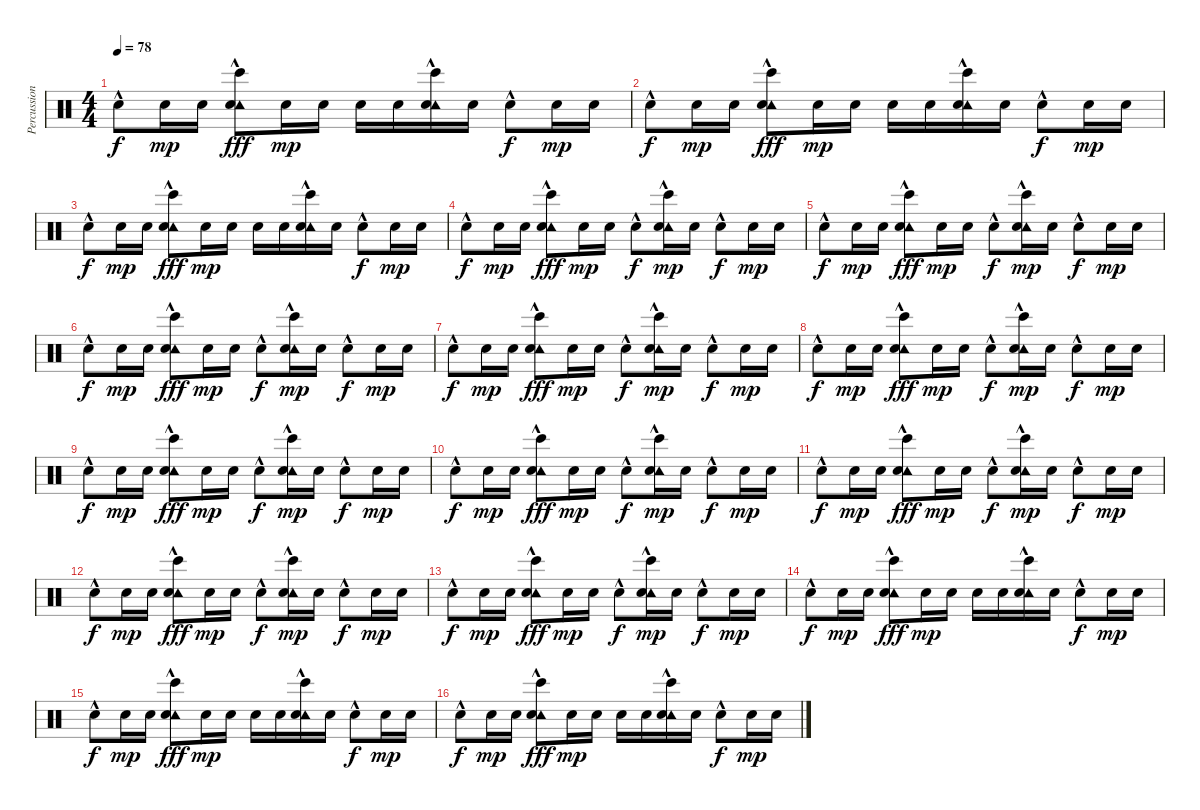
\track ("Percussion" "Percussion") {instrument percussion}
\staff {score}
\articulation defaults
\ts (4 4)
\tempo 78
\clef neutral
\ks c "Snare (hit) 2"{hac}.8{dy f} "Snare (hit) 2".16{dy mp} "Snare (hit) 2".16
("Bongo High (hit)"{hac} "Tambourine (hit)"{hac} "Snare (hit) 2"{hac}).8{dy fff} "Snare (hit) 2".16{dy mp} "Snare (hit) 2".16 "Snare (hit) 2".16 "Snare (hit) 2".16 ("Bongo High (hit)"{hac} "Tambourine (hit)"{hac} "Snare (hit) 2").16 "Snare (hit) 2".16 "Snare (hit) 2"{hac}.8{dy f} "Snare (hit) 2".16{dy mp} "Snare (hit) 2".16 |
"Snare (hit) 2"{hac}.8{dy f} "Snare (hit) 2".16{dy mp} "Snare (hit) 2".16 ("Bongo High (hit)"{hac} "Tambourine (hit)"{hac} "Snare (hit) 2"{hac}).8{dy fff} "Snare (hit) 2".16{dy mp} "Snare (hit) 2".16 "Snare (hit) 2".16 "Snare (hit) 2".16 ("Bongo High (hit)"{hac} "Tambourine (hit)"{hac} "Snare (hit) 2").16 "Snare (hit) 2".16 "Snare (hit) 2"{hac}.8{dy f} "Snare (hit) 2".16{dy mp} "Snare (hit) 2".16 |
"Snare (hit) 2"{hac}.8{dy f} "Snare (hit) 2".16{dy mp} "Snare (hit) 2".16 ("Bongo High (hit)"{hac} "Tambourine (hit)"{hac} "Snare (hit) 2"{hac}).8{dy fff} "Snare (hit) 2".16{dy mp} "Snare (hit) 2".16 "Snare (hit) 2".16 "Snare (hit) 2".16 ("Bongo High (hit)"{hac} "Tambourine (hit)"{hac} "Snare (hit) 2").16 "Snare (hit) 2".16 "Snare (hit) 2"{hac}.8{dy f} "Snare (hit) 2".16{dy mp} "Snare (hit) 2".16 |
"Snare (hit) 2"{hac}.8{dy f} "Snare (hit) 2".16{dy mp} "Snare (hit) 2".16 ("Bongo High (hit)"{hac} "Tambourine (hit)"{hac} "Snare (hit) 2"{hac}).8{dy fff} "Snare (hit) 2".16{dy mp} "Snare (hit) 2".16 "Snare (hit) 2"{hac}.8{dy f} ("Bongo High (hit)"{hac} "Tambourine (hit)"{hac} "Snare (hit) 2").16{dy mp} "Snare (hit) 2".16 "Snare (hit) 2"{hac}.8{dy f} "Snare (hit) 2".16{dy mp} "Snare (hit) 2".16 |
"Snare (hit) 2"{hac}.8{dy f} "Snare (hit) 2".16{dy mp} "Snare (hit) 2".16 ("Bongo High (hit)"{hac} "Tambourine (hit)"{hac} "Snare (hit) 2"{hac}).8{dy fff} "Snare (hit) 2".16{dy mp} "Snare (hit) 2".16 "Snare (hit) 2"{hac}.8{dy f} ("Bongo High (hit)"{hac} "Tambourine (hit)"{hac} "Snare (hit) 2").16{dy mp} "Snare (hit) 2".16 "Snare (hit) 2"{hac}.8{dy f} "Snare (hit) 2".16{dy mp} "Snare (hit) 2".16 |
"Snare (hit) 2"{hac}.8{dy f} "Snare (hit) 2".16{dy mp} "Snare (hit) 2".16 ("Bongo High (hit)"{hac} "Tambourine (hit)"{hac} "Snare (hit) 2"{hac}).8{dy fff} "Snare (hit) 2".16{dy mp} "Snare (hit) 2".16 "Snare (hit) 2"{hac}.8{dy f} ("Bongo High (hit)"{hac} "Tambourine (hit)"{hac} "Snare (hit) 2").16{dy mp} "Snare (hit) 2".16 "Snare (hit) 2"{hac}.8{dy f} "Snare (hit) 2".16{dy mp} "Snare (hit) 2".16 |
"Snare (hit) 2"{hac}.8{dy f} "Snare (hit) 2".16{dy mp} "Snare (hit) 2".16 ("Bongo High (hit)"{hac} "Tambourine (hit)"{hac} "Snare (hit) 2"{hac}).8{dy fff} "Snare (hit) 2".16{dy mp} "Snare (hit) 2".16 "Snare (hit) 2"{hac}.8{dy f} ("Bongo High (hit)"{hac} "Tambourine (hit)"{hac} "Snare (hit) 2").16{dy mp} "Snare (hit) 2".16 "Snare (hit) 2"{hac}.8{dy f} "Snare (hit) 2".16{dy mp} "Snare (hit) 2".16 |
"Snare (hit) 2"{hac}.8{dy f} "Snare (hit) 2".16{dy mp} "Snare (hit) 2".16 ("Bongo High (hit)"{hac} "Tambourine (hit)"{hac} "Snare (hit) 2"{hac}).8{dy fff} "Snare (hit) 2".16{dy mp} "Snare (hit) 2".16 "Snare (hit) 2"{hac}.8{dy f} ("Bongo High (hit)"{hac} "Tambourine (hit)"{hac} "Snare (hit) 2").16{dy mp} "Snare (hit) 2".16 "Snare (hit) 2"{hac}.8{dy f} "Snare (hit) 2".16{dy mp} "Snare (hit) 2".16 |
"Snare (hit) 2"{hac}.8{dy f} "Snare (hit) 2".16{dy mp} "Snare (hit) 2".16 ("Bongo High (hit)"{hac} "Tambourine (hit)"{hac} "Snare (hit) 2"{hac}).8{dy fff} "Snare (hit) 2".16{dy mp} "Snare (hit) 2".16 "Snare (hit) 2"{hac}.8{dy f} ("Bongo High (hit)"{hac} "Tambourine (hit)"{hac} "Snare (hit) 2").16{dy mp} "Snare (hit) 2".16 "Snare (hit) 2"{hac}.8{dy f} "Snare (hit) 2".16{dy mp} "Snare (hit) 2".16 |
"Snare (hit) 2"{hac}.8{dy f} "Snare (hit) 2".16{dy mp} "Snare (hit) 2".16 ("Bongo High (hit)"{hac} "Tambourine (hit)"{hac} "Snare (hit) 2"{hac}).8{dy fff} "Snare (hit) 2".16{dy mp} "Snare (hit) 2".16 "Snare (hit) 2"{hac}.8{dy f} ("Bongo High (hit)"{hac} "Tambourine (hit)"{hac} "Snare (hit) 2").16{dy mp} "Snare (hit) 2".16 "Snare (hit) 2"{hac}.8{dy f} "Snare (hit) 2".16{dy mp} "Snare (hit) 2".16 |
"Snare (hit) 2"{hac}.8{dy f} "Snare (hit) 2".16{dy mp} "Snare (hit) 2".16 ("Bongo High (hit)"{hac} "Tambourine (hit)"{hac} "Snare (hit) 2"{hac}).8{dy fff} "Snare (hit) 2".16{dy mp} "Snare (hit) 2".16 "Snare (hit) 2"{hac}.8{dy f} ("Bongo High (hit)"{hac} "Tambourine (hit)"{hac} "Snare (hit) 2").16{dy mp} "Snare (hit) 2".16 "Snare (hit) 2"{hac}.8{dy f} "Snare (hit) 2".16{dy mp} "Snare (hit) 2".16 |
"Snare (hit) 2"{hac}.8{dy f} "Snare (hit) 2".16{dy mp} "Snare (hit) 2".16 ("Bongo High (hit)"{hac} "Tambourine (hit)"{hac} "Snare (hit) 2"{hac}).8{dy fff} "Snare (hit) 2".16{dy mp} "Snare (hit) 2".16 "Snare (hit) 2"{hac}.8{dy f} ("Bongo High (hit)"{hac} "Tambourine (hit)"{hac} "Snare (hit) 2").16{dy mp} "Snare (hit) 2".16 "Snare (hit) 2"{hac}.8{dy f} "Snare (hit) 2".16{dy mp} "Snare (hit) 2".16 |
"Snare (hit) 2"{hac}.8{dy f} "Snare (hit) 2".16{dy mp} "Snare (hit) 2".16 ("Bongo High (hit)"{hac} "Tambourine (hit)"{hac} "Snare (hit) 2"{hac}).8{dy fff} "Snare (hit) 2".16{dy mp} "Snare (hit) 2".16 "Snare (hit) 2"{hac}.8{dy f} ("Bongo High (hit)"{hac} "Tambourine (hit)"{hac} "Snare (hit) 2").16{dy mp} "Snare (hit) 2".16 "Snare (hit) 2"{hac}.8{dy f} "Snare (hit) 2".16{dy mp} "Snare (hit) 2".16 |
"Snare (hit) 2"{hac}.8{dy f} "Snare (hit) 2".16{dy mp} "Snare (hit) 2".16 ("Bongo High (hit)"{hac} "Tambourine (hit)"{hac} "Snare (hit) 2"{hac}).8{dy fff} "Snare (hit) 2".16{dy mp} "Snare (hit) 2".16 "Snare (hit) 2".16 "Snare (hit) 2".16 ("Bongo High (hit)"{hac} "Tambourine (hit)"{hac} "Snare (hit) 2").16 "Snare (hit) 2".16 "Snare (hit) 2"{hac}.8{dy f} "Snare (hit) 2".16{dy mp} "Snare (hit) 2".16 |
"Snare (hit) 2"{hac}.8{dy f} "Snare (hit) 2".16{dy mp} "Snare (hit) 2".16 ("Bongo High (hit)"{hac} "Tambourine (hit)"{hac} "Snare (hit) 2"{hac}).8{dy fff} "Snare (hit) 2".16{dy mp} "Snare (hit) 2".16 "Snare (hit) 2".16 "Snare (hit) 2".16 ("Bongo High (hit)"{hac} "Tambourine (hit)"{hac} "Snare (hit) 2").16 "Snare (hit) 2".16 "Snare (hit) 2"{hac}.8{dy f} "Snare (hit) 2".16{dy mp} "Snare (hit) 2".16 |
"Snare (hit) 2"{hac}.8{dy f} "Snare (hit) 2".16{dy mp} "Snare (hit) 2".16 ("Bongo High (hit)"{hac} "Tambourine (hit)"{hac} "Snare (hit) 2"{hac}).8{dy fff} "Snare (hit) 2".16{dy mp} "Snare (hit) 2".16 "Snare (hit) 2".16 "Snare (hit) 2".16 ("Bongo High (hit)"{hac} "Tambourine (hit)"{hac} "Snare (hit) 2").16 "Snare (hit) 2".16 "Snare (hit) 2"{hac}.8{dy f} "Snare (hit) 2".16{dy mp} "Snare (hit) 2".16
